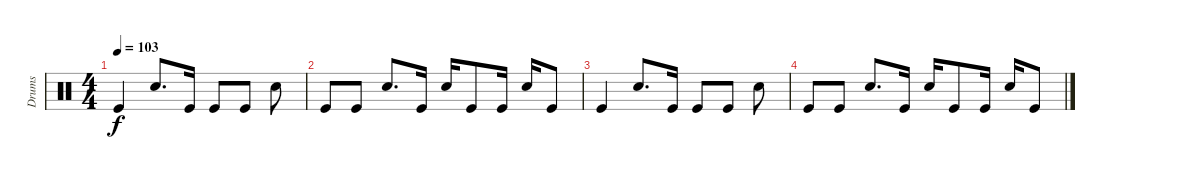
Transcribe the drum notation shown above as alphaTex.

\track ("Drums" "Drums") {instrument percussion}
\staff {score}
\articulation defaults
\ts (4 4)
\tempo 103
\clef neutral
\ks c "Kick (hit)".4{dy f} "Snare (hit) 2".8{d} "Kick (hit)".16 "Kick (hit)".8 "Kick (hit)".8 "Snare (hit) 2".8
|
"Kick (hit)".8 "Kick (hit)".8 "Snare (hit) 2".8{d} "Kick (hit)".16 "Snare (hit) 2".16 "Kick (hit)".8 "Kick (hit)".16 "Snare (hit) 2".16 "Kick (hit)".8 |
"Kick (hit)".4 "Snare (hit) 2".8{d} "Kick (hit)".16 "Kick (hit)".8 "Kick (hit)".8 "Snare (hit) 2".8 |
"Kick (hit)".8 "Kick (hit)".8 "Snare (hit) 2".8{d} "Kick (hit)".16 "Snare (hit) 2".16 "Kick (hit)".8 "Kick (hit)".16 "Snare (hit) 2".16 "Kick (hit)".8
